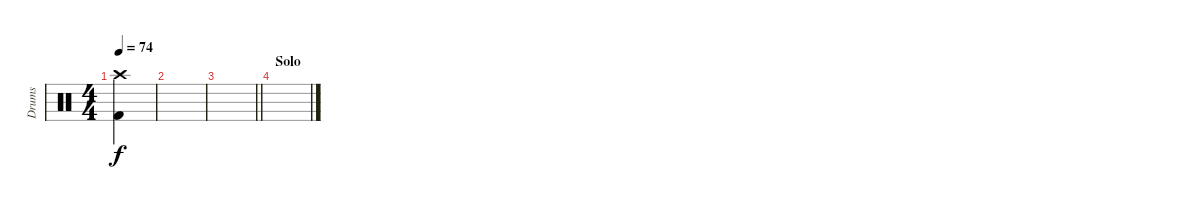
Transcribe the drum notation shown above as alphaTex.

\track ("Drums" "Drums") {instrument percussion}
\staff {score}
\articulation defaults
\ts (4 4)
\tempo 74
\clef neutral
\ks c
("Crash high (hit)" "Kick (hit) 2").4{dy f} |
|
\barLineRight lightlight
|
\section ("" "Solo")
